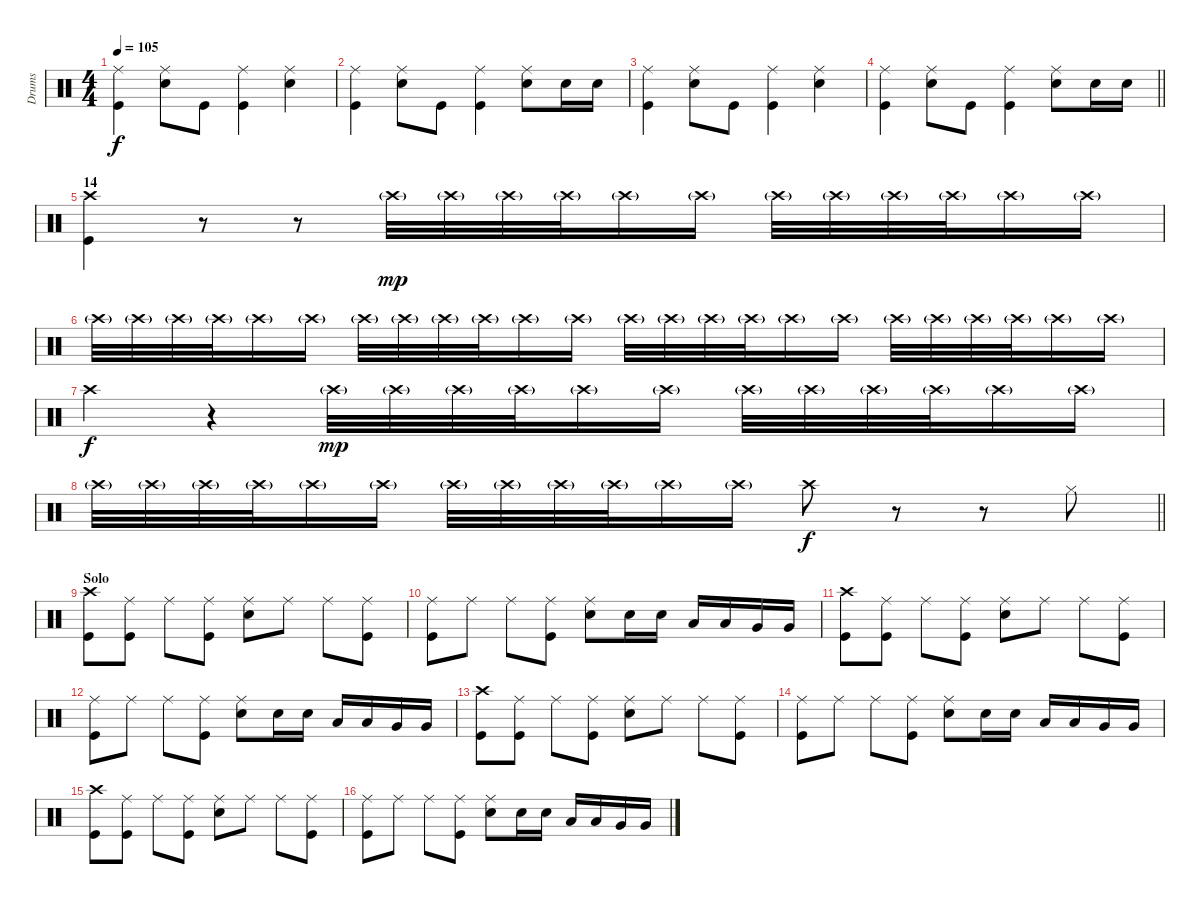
\track ("Drums" "Drums") {instrument percussion}
\staff
\articulation defaults
\ts (4 4)
\tempo 105
\clef neutral
\ks c
("Ride (middle)" "Kick (hit)").4{dy f} ("Ride (middle)" "Electric Snare (hit)").8 "Kick (hit)".8 ("Ride (middle)" "Kick (hit)").4 ("Ride (middle)" "Electric Snare (hit)").4 |
("Ride (middle)" "Kick (hit)").4 ("Ride (middle)" "Electric Snare (hit)").8 "Kick (hit)".8 ("Ride (middle)" "Kick (hit)").4 ("Ride (middle)" "Electric Snare (hit)").8 "Electric Snare (hit)".16 "Electric Snare (hit)".16 |
("Ride (middle)" "Kick (hit)").4 ("Ride (middle)" "Electric Snare (hit)").8 "Kick (hit)".8 ("Ride (middle)" "Kick (hit)").4 ("Ride (middle)" "Electric Snare (hit)").4 |
\barLineRight lightlight
("Ride (middle)" "Kick (hit)").4 ("Ride (middle)" "Electric Snare (hit)").8 "Kick (hit)".8 ("Ride (middle)" "Kick (hit)").4 ("Ride (middle)" "Electric Snare (hit)").8 "Electric Snare (hit)".16 "Electric Snare (hit)".16 |
\section ("" "14")
("Crash high (hit)" "Kick (hit)").4 r.8 r.8 "Crash high (hit)"{g}.32{dy mp volume 8} "Crash high (hit)"{g}.32 "Crash high (hit)"{g}.32 "Crash high (hit)"{g}.32 "Crash high (hit)"{g}.16 "Crash high (hit)"{g}.16 "Crash high (hit)"{g}.32 "Crash high (hit)"{g}.32 "Crash high (hit)"{g}.32 "Crash high (hit)"{g}.32 "Crash high (hit)"{g}.16 "Crash high (hit)"{g}.16 |
"Crash high (hit)"{g}.32{volume 8} "Crash high (hit)"{g}.32 "Crash high (hit)"{g}.32 "Crash high (hit)"{g}.32 "Crash high (hit)"{g}.16 "Crash high (hit)"{g}.16 "Crash high (hit)"{g}.32 "Crash high (hit)"{g}.32 "Crash high (hit)"{g}.32 "Crash high (hit)"{g}.32 "Crash high (hit)"{g}.16 "Crash high (hit)"{g}.16 "Crash high (hit)"{g}.32{volume 13} "Crash high (hit)"{g}.32 "Crash high (hit)"{g}.32 "Crash high (hit)"{g}.32 "Crash high (hit)"{g}.16 "Crash high (hit)"{g}.16 "Crash high (hit)"{g}.32 "Crash high (hit)"{g}.32 "Crash high (hit)"{g}.32 "Crash high (hit)"{g}.32 "Crash high (hit)"{g}.16 "Crash high (hit)"{g}.16 |
"Crash high (hit)".4{dy f volume 13} r.4 "Crash high (hit)"{g}.32{dy mp volume 8} "Crash high (hit)"{g}.32 "Crash high (hit)"{g}.32 "Crash high (hit)"{g}.32 "Crash high (hit)"{g}.16 "Crash high (hit)"{g}.16 "Crash high (hit)"{g}.32 "Crash high (hit)"{g}.32 "Crash high (hit)"{g}.32 "Crash high (hit)"{g}.32 "Crash high (hit)"{g}.16 "Crash high (hit)"{g}.16 |
\barLineRight lightlight "Crash high (hit)"{g}.32{volume 13} "Crash high (hit)"{g}.32 "Crash high (hit)"{g}.32 "Crash high (hit)"{g}.32 "Crash high (hit)"{g}.16 "Crash high (hit)"{g}.16 "Crash high (hit)"{g}.32 "Crash high (hit)"{g}.32 "Crash high (hit)"{g}.32 "Crash high (hit)"{g}.32 "Crash high (hit)"{g}.16 "Crash high (hit)"{g}.16 "Crash high (hit)".8{dy f volume 13}
r.8 r.8 "Hi-Hat (closed)".8 |
\section ("" "Solo")
("Crash high (hit)" "Kick (hit)").8 ("Ride (middle)" "Kick (hit)").8 "Ride (middle)".8 ("Ride (middle)" "Kick (hit)").8 ("Ride (middle)" "Electric Snare (hit)").8 "Ride (middle)".8 "Ride (middle)".8 ("Ride (middle)" "Kick (hit)").8 |
("Ride (middle)" "Kick (hit)").8 "Ride (middle)".8 "Ride (middle)".8 ("Ride (middle)" "Kick (hit)").8 ("Ride (middle)" "Electric Snare (hit)").8 "Electric Snare (hit)".16 "Electric Snare (hit)".16 "Low Tom (hit)".16 "Low Tom (hit)".16 "Very Low Tom (hit)".16 "Very Low Tom (hit)".16 |
("Crash high (hit)" "Kick (hit)").8 ("Ride (middle)" "Kick (hit)").8 "Ride (middle)".8 ("Ride (middle)" "Kick (hit)").8 ("Ride (middle)" "Electric Snare (hit)").8 "Ride (middle)".8 "Ride (middle)".8 ("Ride (middle)" "Kick (hit)").8 |
("Ride (middle)" "Kick (hit)").8 "Ride (middle)".8 "Ride (middle)".8 ("Ride (middle)" "Kick (hit)").8 ("Ride (middle)" "Electric Snare (hit)").8 "Electric Snare (hit)".16 "Electric Snare (hit)".16 "Low Tom (hit)".16 "Low Tom (hit)".16 "Very Low Tom (hit)".16 "Very Low Tom (hit)".16 |
("Crash high (hit)" "Kick (hit)").8 ("Ride (middle)" "Kick (hit)").8 "Ride (middle)".8 ("Ride (middle)" "Kick (hit)").8 ("Ride (middle)" "Electric Snare (hit)").8 "Ride (middle)".8 "Ride (middle)".8 ("Ride (middle)" "Kick (hit)").8 |
("Ride (middle)" "Kick (hit)").8 "Ride (middle)".8 "Ride (middle)".8 ("Ride (middle)" "Kick (hit)").8 ("Ride (middle)" "Electric Snare (hit)").8 "Electric Snare (hit)".16 "Electric Snare (hit)".16 "Low Tom (hit)".16 "Low Tom (hit)".16 "Very Low Tom (hit)".16 "Very Low Tom (hit)".16 |
("Crash high (hit)" "Kick (hit)").8 ("Ride (middle)" "Kick (hit)").8 "Ride (middle)".8 ("Ride (middle)" "Kick (hit)").8 ("Ride (middle)" "Electric Snare (hit)").8 "Ride (middle)".8 "Ride (middle)".8 ("Ride (middle)" "Kick (hit)").8 |
("Ride (middle)" "Kick (hit)").8 "Ride (middle)".8 "Ride (middle)".8 ("Ride (middle)" "Kick (hit)").8 ("Ride (middle)" "Electric Snare (hit)").8 "Electric Snare (hit)".16 "Electric Snare (hit)".16 "Low Tom (hit)".16 "Low Tom (hit)".16 "Very Low Tom (hit)".16 "Very Low Tom (hit)".16
